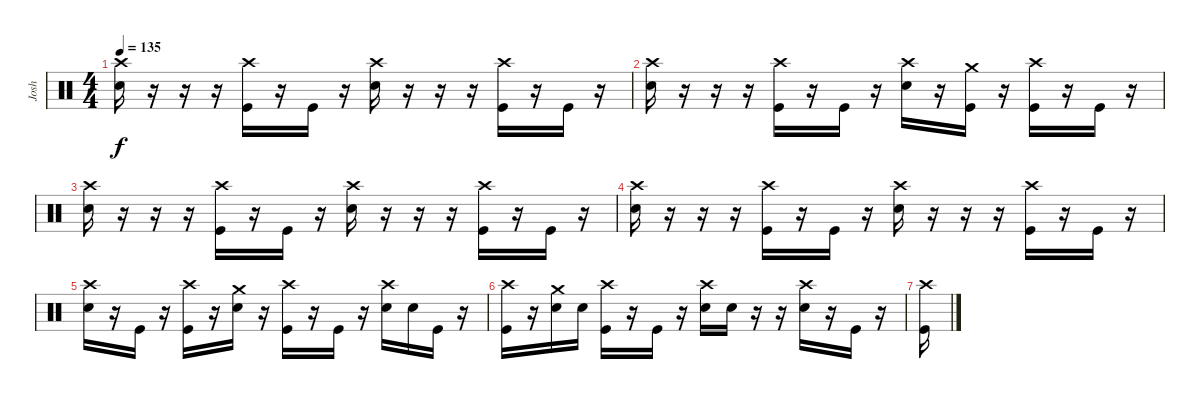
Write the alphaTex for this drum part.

\track ("Josh" "Josh") {instrument percussion}
\staff {score}
\articulation defaults
\ts (4 4)
\tempo 135
\clef neutral
\ks c
("Crash high (hit)" "Snare (hit) 2").16{dy f} r.16 r.16 r.16 ("Crash high (hit)" "Kick (hit)").16 r.16 "Kick (hit)".16 r.16 ("Crash high (hit)" "Snare (hit) 2").16 r.16 r.16 r.16 ("Crash high (hit)" "Kick (hit)").16 r.16 "Kick (hit)".16 r.16 |
("Crash high (hit)" "Snare (hit) 2").16 r.16 r.16 r.16 ("Crash high (hit)" "Kick (hit)").16 r.16 "Kick (hit)".16 r.16 ("Crash high (hit)" "Snare (hit) 2").16 r.16 ("Crash medium (hit)" "Kick (hit)").16 r.16 ("Crash high (hit)" "Kick (hit)").16 r.16 "Kick (hit)".16 r.16 |
("Crash high (hit)" "Snare (hit) 2").16 r.16 r.16 r.16 ("Crash high (hit)" "Kick (hit)").16 r.16 "Kick (hit)".16 r.16 ("Crash high (hit)" "Snare (hit) 2").16 r.16 r.16 r.16 ("Crash high (hit)" "Kick (hit)").16 r.16 "Kick (hit)".16 r.16 |
("Crash high (hit)" "Snare (hit) 2").16 r.16 r.16 r.16 ("Crash high (hit)" "Kick (hit)").16 r.16 "Kick (hit)".16 r.16 ("Crash high (hit)" "Snare (hit) 2").16 r.16 r.16 r.16 ("Crash high (hit)" "Kick (hit)").16 r.16 "Kick (hit)".16 r.16 |
("Crash high (hit)" "Snare (hit) 2").16 r.16 "Kick (hit)".16 r.16 ("Crash high (hit)" "Kick (hit)").16 r.16 ("Crash medium (hit)" "Snare (hit) 2").16 r.16 ("Crash high (hit)" "Kick (hit)").16 r.16 "Kick (hit)".16 r.16 ("Crash high (hit)" "Snare (hit) 2").16 "Snare (hit) 2".16 "Kick (hit)".16 r.16 |
("Crash high (hit)" "Kick (hit)").16 r.16 ("Crash medium (hit)" "Snare (hit) 2").16 "Snare (hit) 2".16 ("Crash high (hit)" "Kick (hit)").16 r.16 "Kick (hit)".16 r.16 ("Crash high (hit)" "Snare (hit) 2").16 "Snare (hit) 2".16 r.16 r.16 ("Crash high (hit)" "Snare (hit) 2").16 r.16 "Kick (hit)".16 r.16 |
("Crash high (hit)" "Kick (hit)").16
